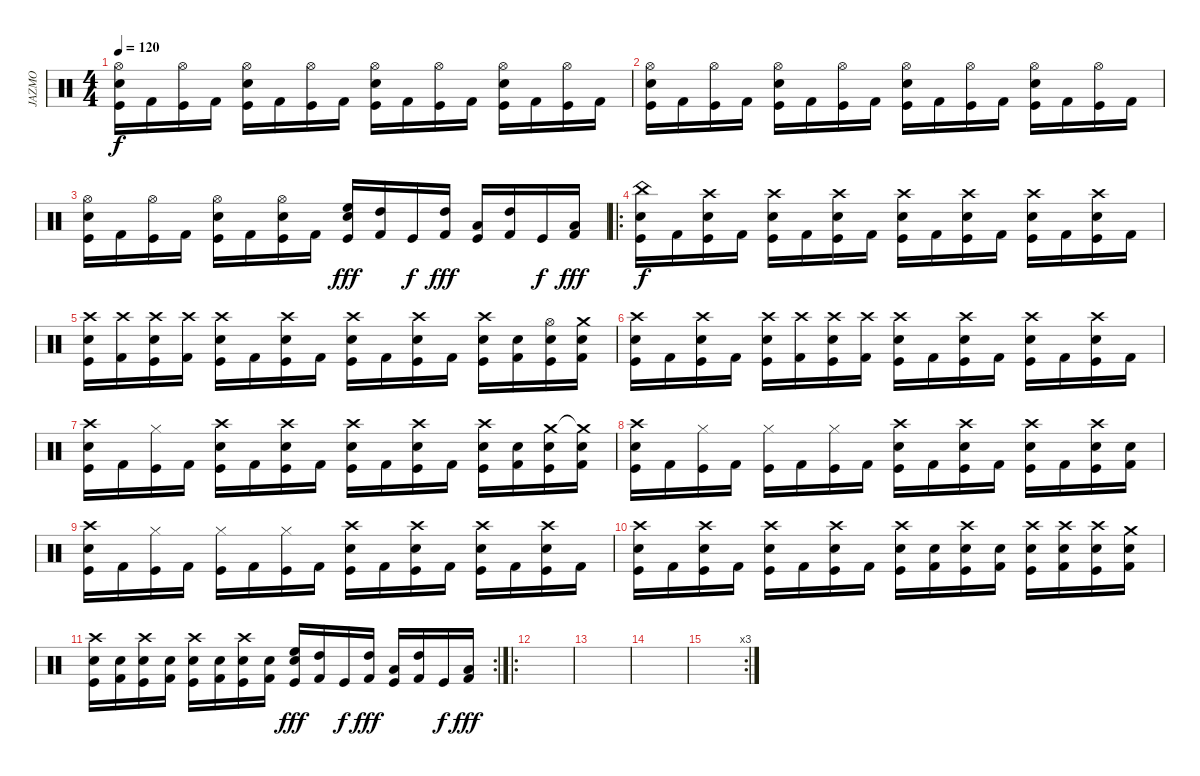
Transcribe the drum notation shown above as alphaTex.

\track ("JAZMO" "JAZMO") {instrument percussion}
\staff {score}
\articulation defaults
\ts (4 4)
\tempo 120
\clef neutral
\ks c
("Hi-Hat (open)" "Electric Snare (hit)" "Kick (hit)").16{dy f} "Kick (hit) 2".16 ("Hi-Hat (open)" "Kick (hit)").16 "Kick (hit) 2".16 ("Hi-Hat (open)" "Electric Snare (hit)" "Kick (hit)").16 "Kick (hit) 2".16 ("Hi-Hat (open)" "Kick (hit)").16 "Kick (hit) 2".16 ("Hi-Hat (open)" "Electric Snare (hit)" "Kick (hit)").16 "Kick (hit) 2".16 ("Hi-Hat (open)" "Kick (hit)").16 "Kick (hit) 2".16 ("Hi-Hat (open)" "Electric Snare (hit)" "Kick (hit)").16 "Kick (hit) 2".16 ("Hi-Hat (open)" "Kick (hit)").16 "Kick (hit) 2".16 |
("Hi-Hat (open)" "Electric Snare (hit)" "Kick (hit)").16 "Kick (hit) 2".16 ("Hi-Hat (open)" "Kick (hit)").16 "Kick (hit) 2".16 ("Hi-Hat (open)" "Electric Snare (hit)" "Kick (hit)").16 "Kick (hit) 2".16 ("Hi-Hat (open)" "Kick (hit)").16 "Kick (hit) 2".16 ("Hi-Hat (open)" "Electric Snare (hit)" "Kick (hit)").16 "Kick (hit) 2".16 ("Hi-Hat (open)" "Kick (hit)").16 "Kick (hit) 2".16 ("Hi-Hat (open)" "Electric Snare (hit)" "Kick (hit)").16 "Kick (hit) 2".16 ("Hi-Hat (open)" "Kick (hit)").16 "Kick (hit) 2".16 |
("Hi-Hat (open)" "Electric Snare (hit)" "Kick (hit)").16 "Kick (hit) 2".16 ("Hi-Hat (open)" "Kick (hit)").16 "Kick (hit) 2".16 ("Hi-Hat (open)" "Electric Snare (hit)" "Kick (hit)").16 "Kick (hit) 2".16 ("Hi-Hat (open)" "Electric Snare (hit)" "Kick (hit)").16 "Kick (hit) 2".16 ("High Floor Tom (hit)" "Electric Snare (hit)" "Kick (hit)").16{dy fff} ("High Tom (hit)" "Kick (hit) 2").16 "Kick (hit)".16{dy f} ("High Tom (hit)" "Kick (hit) 2").16{dy fff} ("Low Tom (hit)" "Kick (hit)").16 ("High Tom (hit)" "Kick (hit) 2").16 "Kick (hit)".16{dy f} ("Low Floor Tom (hit)" "Kick (hit) 2").16{dy fff} |
\ro
("China (hit)" "Electric Snare (hit)" "Kick (hit)").16{dy f} "Kick (hit) 2".16 ("Crash high (hit)" "Electric Snare (hit)" "Kick (hit)").16 "Kick (hit) 2".16 ("Crash high (hit)" "Electric Snare (hit)" "Kick (hit)").16 "Kick (hit) 2".16 ("Crash high (hit)" "Electric Snare (hit)" "Kick (hit)").16 "Kick (hit) 2".16 ("Crash high (hit)" "Electric Snare (hit)" "Kick (hit)").16 "Kick (hit) 2".16 ("Crash high (hit)" "Electric Snare (hit)" "Kick (hit)").16 "Kick (hit) 2".16 ("Crash high (hit)" "Electric Snare (hit)" "Kick (hit)").16 "Kick (hit) 2".16 ("Crash high (hit)" "Electric Snare (hit)" "Kick (hit)").16 "Kick (hit) 2".16 |
("Crash high (hit)" "Electric Snare (hit)" "Kick (hit)").16 ("Crash high (hit)" "Kick (hit) 2").16 ("Crash high (hit)" "Electric Snare (hit)" "Kick (hit)").16 ("Crash high (hit)" "Kick (hit) 2").16 ("Crash high (hit)" "Electric Snare (hit)" "Kick (hit)").16 "Kick (hit) 2".16 ("Crash high (hit)" "Electric Snare (hit)" "Kick (hit)").16 "Kick (hit) 2".16 ("Crash high (hit)" "Electric Snare (hit)" "Kick (hit)").16 "Kick (hit) 2".16 ("Crash high (hit)" "Electric Snare (hit)" "Kick (hit)").16 "Kick (hit) 2".16 ("Crash high (hit)" "Electric Snare (hit)" "Kick (hit)").16 ("Electric Snare (hit)" "Kick (hit) 2").16 ("Hi-Hat (open)" "Electric Snare (hit)" "Kick (hit)").16 ("Crash medium (hit)" "Electric Snare (hit)" "Kick (hit) 2").16 |
("Crash high (hit)" "Electric Snare (hit)" "Kick (hit)").16 "Kick (hit) 2".16 ("Crash high (hit)" "Electric Snare (hit)" "Kick (hit)").16 "Kick (hit) 2".16 ("Crash high (hit)" "Electric Snare (hit)" "Kick (hit)").16 ("Crash high (hit)" "Kick (hit) 2").16 ("Crash high (hit)" "Electric Snare (hit)" "Kick (hit)").16 ("Crash high (hit)" "Kick (hit) 2").16 ("Crash high (hit)" "Electric Snare (hit)" "Kick (hit)").16 "Kick (hit) 2".16 ("Crash high (hit)" "Electric Snare (hit)" "Kick (hit)").16 "Kick (hit) 2".16 ("Crash high (hit)" "Electric Snare (hit)" "Kick (hit)").16 "Kick (hit) 2".16 ("Crash high (hit)" "Electric Snare (hit)" "Kick (hit)").16 "Kick (hit) 2".16 |
("Crash high (hit)" "Electric Snare (hit)" "Kick (hit)").16 "Kick (hit) 2".16 ("Hi-Hat (closed)" "Kick (hit)").16 "Kick (hit) 2".16 ("Crash high (hit)" "Electric Snare (hit)" "Kick (hit)").16 "Kick (hit) 2".16 ("Crash high (hit)" "Electric Snare (hit)" "Kick (hit)").16 "Kick (hit) 2".16 ("Crash high (hit)" "Electric Snare (hit)" "Kick (hit)").16 "Kick (hit) 2".16 ("Crash high (hit)" "Electric Snare (hit)" "Kick (hit)").16 "Kick (hit) 2".16 ("Crash high (hit)" "Electric Snare (hit)" "Kick (hit)").16 ("Electric Snare (hit)" "Kick (hit) 2").16 ("Crash medium (hit)" "Electric Snare (hit)" "Kick (hit)").16 ("Crash medium (hit)"{t} "Electric Snare (hit)" "Kick (hit) 2").16 |
("Crash high (hit)" "Electric Snare (hit)" "Kick (hit)").16 "Kick (hit) 2".16 ("Hi-Hat (closed)" "Kick (hit)").16 "Kick (hit) 2".16 ("Hi-Hat (closed)" "Kick (hit)").16 "Kick (hit) 2".16 ("Hi-Hat (closed)" "Kick (hit)").16 "Kick (hit) 2".16 ("Crash high (hit)" "Electric Snare (hit)" "Kick (hit)").16 "Kick (hit) 2".16 ("Crash high (hit)" "Electric Snare (hit)" "Kick (hit)").16 "Kick (hit) 2".16 ("Crash high (hit)" "Electric Snare (hit)" "Kick (hit)").16 "Kick (hit) 2".16 ("Crash high (hit)" "Electric Snare (hit)" "Kick (hit)").16 ("Electric Snare (hit)" "Kick (hit) 2").16 |
("Crash high (hit)" "Electric Snare (hit)" "Kick (hit)").16 "Kick (hit) 2".16 ("Hi-Hat (closed)" "Kick (hit)").16 "Kick (hit) 2".16 ("Hi-Hat (closed)" "Kick (hit)").16 "Kick (hit) 2".16 ("Hi-Hat (closed)" "Kick (hit)").16 "Kick (hit) 2".16 ("Crash high (hit)" "Electric Snare (hit)" "Kick (hit)").16 "Kick (hit) 2".16 ("Crash high (hit)" "Electric Snare (hit)" "Kick (hit)").16 "Kick (hit) 2".16 ("Crash high (hit)" "Electric Snare (hit)" "Kick (hit)").16 "Kick (hit) 2".16 ("Crash high (hit)" "Electric Snare (hit)" "Kick (hit)").16 "Kick (hit) 2".16 |
("Crash high (hit)" "Electric Snare (hit)" "Kick (hit)").16 "Kick (hit) 2".16 ("Crash high (hit)" "Electric Snare (hit)" "Kick (hit)").16 "Kick (hit) 2".16 ("Crash high (hit)" "Electric Snare (hit)" "Kick (hit)").16 "Kick (hit) 2".16 ("Crash high (hit)" "Electric Snare (hit)" "Kick (hit)").16 "Kick (hit) 2".16 ("Crash high (hit)" "Electric Snare (hit)" "Kick (hit)").16 ("Electric Snare (hit)" "Kick (hit) 2").16 ("Crash high (hit)" "Electric Snare (hit)" "Kick (hit)").16 ("Electric Snare (hit)" "Kick (hit) 2").16 ("Crash high (hit)" "Electric Snare (hit)" "Kick (hit)").16 ("Crash high (hit)" "Electric Snare (hit)" "Kick (hit) 2").16 ("Crash high (hit)" "Electric Snare (hit)" "Kick (hit)").16 ("Crash medium (hit)" "Electric Snare (hit)" "Kick (hit) 2").16 |
\rc 2
("Crash high (hit)" "Electric Snare (hit)" "Kick (hit)").16 ("Electric Snare (hit)" "Kick (hit) 2").16 ("Crash high (hit)" "Electric Snare (hit)" "Kick (hit)").16 ("Electric Snare (hit)" "Kick (hit) 2").16 ("Crash high (hit)" "Electric Snare (hit)" "Kick (hit)").16 ("Electric Snare (hit)" "Kick (hit) 2").16 ("Crash high (hit)" "Electric Snare (hit)" "Kick (hit)").16 ("Electric Snare (hit)" "Kick (hit) 2").16 ("High Floor Tom (hit)" "Electric Snare (hit)" "Kick (hit)").16{dy fff} ("High Tom (hit)" "Kick (hit) 2").16 "Kick (hit)".16{dy f} ("High Tom (hit)" "Kick (hit) 2").16{dy fff} ("Low Tom (hit)" "Kick (hit)").16 ("High Tom (hit)" "Kick (hit) 2").16 "Kick (hit)".16{dy f} ("Low Floor Tom (hit)" "Kick (hit) 2").16{dy fff} |
\ro
|
|
|
\rc 3
